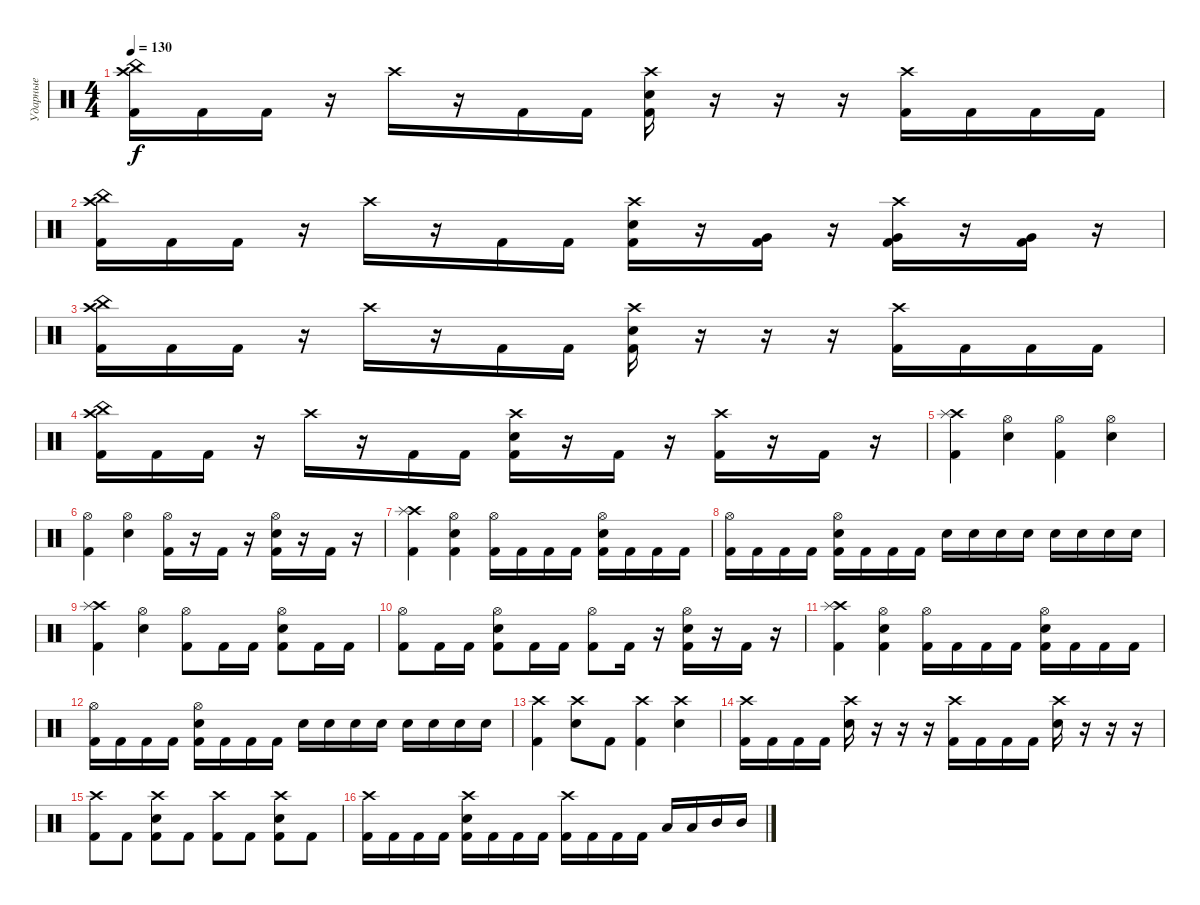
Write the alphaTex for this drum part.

\track ("Ударные" "Ударные") {instrument percussion}
\staff {score}
\articulation defaults
\ts (4 4)
\tempo 130
\clef neutral
\ks c
("Crash high (hit)" "China (hit)" "Kick (hit) 2").16{dy f} "Kick (hit) 2".16 "Kick (hit) 2".16 r.16 "Crash high (hit)".16 r.16 "Kick (hit) 2".16 "Kick (hit) 2".16 ("Crash high (hit)" "Snare (hit) 2" "Kick (hit) 2").16 r.16 r.16 r.16 ("Crash high (hit)" "Kick (hit) 2").16 "Kick (hit) 2".16 "Kick (hit) 2".16 "Kick (hit) 2".16 |
("Crash high (hit)" "China (hit)" "Kick (hit) 2").16 "Kick (hit) 2".16 "Kick (hit) 2".16 r.16 "Crash high (hit)".16 r.16 "Kick (hit) 2".16 "Kick (hit) 2".16 ("Crash high (hit)" "Snare (hit) 2" "Kick (hit) 2").16 r.16 ("Very Low Tom (hit)" "Kick (hit) 2").16 r.16 ("Crash high (hit)" "Very Low Tom (hit)" "Kick (hit) 2").16 r.16 ("Very Low Tom (hit)" "Kick (hit) 2").16 r.16 |
("Crash high (hit)" "China (hit)" "Kick (hit) 2").16 "Kick (hit) 2".16 "Kick (hit) 2".16 r.16 "Crash high (hit)".16 r.16 "Kick (hit) 2".16 "Kick (hit) 2".16 ("Crash high (hit)" "Snare (hit) 2" "Kick (hit) 2").16 r.16 r.16 r.16 ("Crash high (hit)" "Kick (hit) 2").16 "Kick (hit) 2".16 "Kick (hit) 2".16 "Kick (hit) 2".16 |
("Crash high (hit)" "China (hit)" "Kick (hit) 2").16 "Kick (hit) 2".16 "Kick (hit) 2".16 r.16 "Crash high (hit)".16 r.16 "Kick (hit) 2".16 "Kick (hit) 2".16 ("Crash high (hit)" "Snare (hit) 2" "Kick (hit) 2").16 r.16 "Kick (hit) 2".16 r.16 ("Crash high (hit)" "Kick (hit) 2").16 r.16 "Kick (hit) 2".16 r.16 |
("Crash high (hit)" "Splash (hit)" "Kick (hit) 2").4 ("Hi-Hat (open)" "Snare (hit) 2").4 ("Hi-Hat (open)" "Kick (hit) 2").4 ("Hi-Hat (open)" "Snare (hit) 2").4 |
("Hi-Hat (open)" "Kick (hit) 2").4 ("Hi-Hat (open)" "Snare (hit) 2").4 ("Hi-Hat (open)" "Kick (hit) 2").16 r.16 "Kick (hit) 2".16 r.16 ("Hi-Hat (open)" "Snare (hit) 2" "Kick (hit) 2").16 r.16 "Kick (hit) 2".16 r.16 |
("Crash high (hit)" "Splash (hit)" "Kick (hit) 2").4 ("Hi-Hat (open)" "Snare (hit) 2" "Kick (hit) 2").4 ("Hi-Hat (open)" "Kick (hit) 2").16 "Kick (hit) 2".16 "Kick (hit) 2".16 "Kick (hit) 2".16 ("Hi-Hat (open)" "Snare (hit) 2" "Kick (hit) 2").16 "Kick (hit) 2".16 "Kick (hit) 2".16 "Kick (hit) 2".16 |
("Hi-Hat (open)" "Kick (hit) 2").16 "Kick (hit) 2".16 "Kick (hit) 2".16 "Kick (hit) 2".16 ("Hi-Hat (open)" "Snare (hit) 2" "Kick (hit) 2").16 "Kick (hit) 2".16 "Kick (hit) 2".16 "Kick (hit) 2".16 "Snare (hit) 2".16 "Snare (hit) 2".16 "Snare (hit) 2".16 "Snare (hit) 2".16 "Snare (hit) 2".16 "Snare (hit) 2".16 "Snare (hit) 2".16 "Snare (hit) 2".16 |
("Crash high (hit)" "Splash (hit)" "Kick (hit) 2").4 ("Hi-Hat (open)" "Snare (hit) 2").4 ("Hi-Hat (open)" "Kick (hit) 2").8 "Kick (hit) 2".16 "Kick (hit) 2".16 ("Hi-Hat (open)" "Snare (hit) 2" "Kick (hit) 2").8 "Kick (hit) 2".16 "Kick (hit) 2".16 |
("Hi-Hat (open)" "Kick (hit) 2").8 "Kick (hit) 2".16 "Kick (hit) 2".16 ("Hi-Hat (open)" "Snare (hit) 2" "Kick (hit) 2").8 "Kick (hit) 2".16 "Kick (hit) 2".16 ("Hi-Hat (open)" "Kick (hit) 2").8 "Kick (hit) 2".16 r.16 ("Hi-Hat (open)" "Snare (hit) 2" "Kick (hit) 2").16 r.16 "Kick (hit) 2".16 r.16 |
("Crash high (hit)" "Splash (hit)" "Kick (hit) 2").4 ("Hi-Hat (open)" "Snare (hit) 2" "Kick (hit) 2").4 ("Hi-Hat (open)" "Kick (hit) 2").16 "Kick (hit) 2".16 "Kick (hit) 2".16 "Kick (hit) 2".16 ("Hi-Hat (open)" "Snare (hit) 2" "Kick (hit) 2").16 "Kick (hit) 2".16 "Kick (hit) 2".16 "Kick (hit) 2".16 |
("Hi-Hat (open)" "Kick (hit) 2").16 "Kick (hit) 2".16 "Kick (hit) 2".16 "Kick (hit) 2".16 ("Hi-Hat (open)" "Snare (hit) 2" "Kick (hit) 2").16 "Kick (hit) 2".16 "Kick (hit) 2".16 "Kick (hit) 2".16 "Snare (hit) 2".16 "Snare (hit) 2".16 "Snare (hit) 2".16 "Snare (hit) 2".16 "Snare (hit) 2".16 "Snare (hit) 2".16 "Snare (hit) 2".16 "Snare (hit) 2".16 |
("Crash high (hit)" "Kick (hit) 2").4 ("Crash high (hit)" "Snare (hit) 2").8 "Kick (hit) 2".8 ("Crash high (hit)" "Kick (hit) 2").4 ("Crash high (hit)" "Snare (hit) 2").4 |
("Crash high (hit)" "Kick (hit) 2").16 "Kick (hit) 2".16 "Kick (hit) 2".16 "Kick (hit) 2".16 ("Crash high (hit)" "Snare (hit) 2").16 r.16 r.16 r.16 ("Crash high (hit)" "Kick (hit) 2").16 "Kick (hit) 2".16 "Kick (hit) 2".16 "Kick (hit) 2".16 ("Crash high (hit)" "Snare (hit) 2").16 r.16 r.16 r.16 |
("Crash high (hit)" "Kick (hit) 2").8 "Kick (hit) 2".8 ("Crash high (hit)" "Snare (hit) 2" "Kick (hit) 2").8 "Kick (hit) 2".8 ("Crash high (hit)" "Kick (hit) 2").8 "Kick (hit) 2".8 ("Crash high (hit)" "Snare (hit) 2" "Kick (hit) 2").8 "Kick (hit) 2".8 |
("Crash high (hit)" "Kick (hit) 2").16 "Kick (hit) 2".16 "Kick (hit) 2".16 "Kick (hit) 2".16 ("Crash high (hit)" "Snare (hit) 2" "Kick (hit) 2").16 "Kick (hit) 2".16 "Kick (hit) 2".16 "Kick (hit) 2".16 ("Crash high (hit)" "Kick (hit) 2").16 "Kick (hit) 2".16 "Kick (hit) 2".16 "Kick (hit) 2".16 "Low Tom (hit)".16 "Low Tom (hit)".16 "Mid Tom (hit)".16 "Mid Tom (hit)".16
